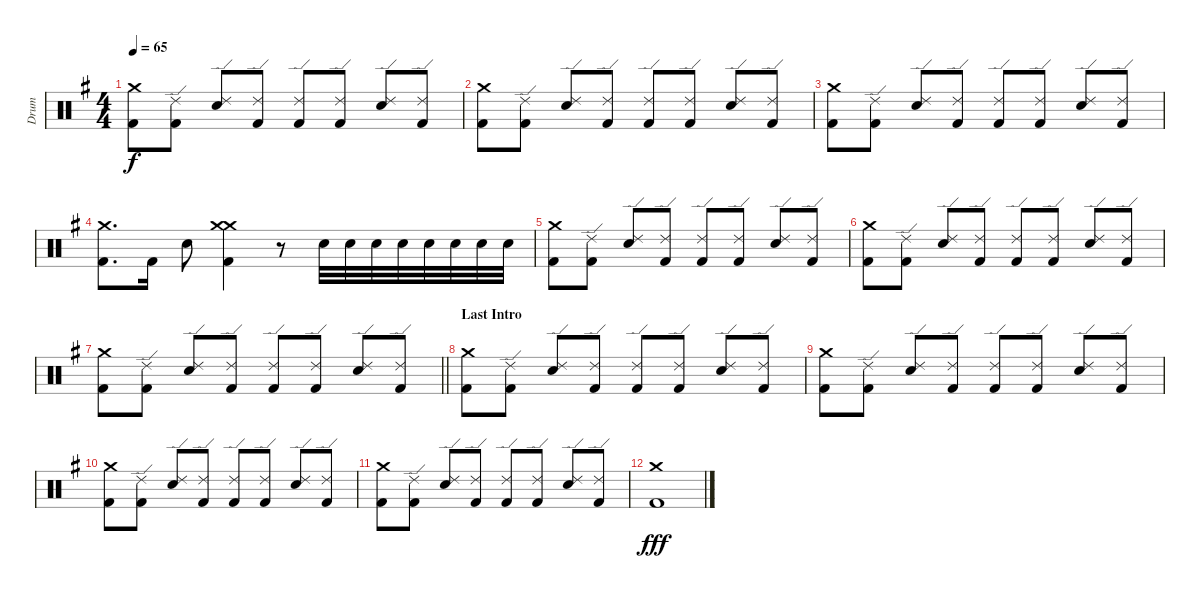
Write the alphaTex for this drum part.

\track ("Drum" "Drum") {instrument percussion}
\staff {score}
\articulation defaults
\ts (4 4)
\tempo 65
\clef neutral
\ks g
("Crash medium (hit)" "Kick (hit) 2").8{dy f} ("Ride (edge) 2" "Kick (hit) 2").8 ("Ride (edge) 2" "Electric Snare (hit)").8 ("Ride (edge) 2" "Kick (hit) 2").8 ("Ride (edge) 2" "Kick (hit) 2").8 ("Ride (edge) 2" "Kick (hit) 2").8 ("Ride (edge) 2" "Electric Snare (hit)").8 ("Ride (edge) 2" "Kick (hit) 2").8 |
("Crash medium (hit)" "Kick (hit) 2").8 ("Ride (edge) 2" "Kick (hit) 2").8 ("Ride (edge) 2" "Electric Snare (hit)").8 ("Ride (edge) 2" "Kick (hit) 2").8 ("Ride (edge) 2" "Kick (hit) 2").8 ("Ride (edge) 2" "Kick (hit) 2").8 ("Ride (edge) 2" "Electric Snare (hit)").8 ("Ride (edge) 2" "Kick (hit) 2").8 |
("Crash medium (hit)" "Kick (hit) 2").8 ("Ride (edge) 2" "Kick (hit) 2").8 ("Ride (edge) 2" "Electric Snare (hit)").8 ("Ride (edge) 2" "Kick (hit) 2").8 ("Ride (edge) 2" "Kick (hit) 2").8 ("Ride (edge) 2" "Kick (hit) 2").8 ("Ride (edge) 2" "Electric Snare (hit)").8 ("Ride (edge) 2" "Kick (hit) 2").8 |
("Crash medium (hit)" "Kick (hit) 2").8{d} "Kick (hit) 2".16 "Electric Snare (hit)".8 ("Crash medium (hit)" "Crash medium (hit)" "Kick (hit) 2").4 r.8 "Electric Snare (hit)".32 "Electric Snare (hit)".32 "Electric Snare (hit)".32 "Electric Snare (hit)".32 "Electric Snare (hit)".32 "Electric Snare (hit)".32 "Electric Snare (hit)".32 "Electric Snare (hit)".32 |
("Crash medium (hit)" "Kick (hit) 2").8 ("Ride (edge) 2" "Kick (hit) 2").8 ("Ride (edge) 2" "Electric Snare (hit)").8 ("Ride (edge) 2" "Kick (hit) 2").8 ("Ride (edge) 2" "Kick (hit) 2").8 ("Ride (edge) 2" "Kick (hit) 2").8 ("Ride (edge) 2" "Electric Snare (hit)").8 ("Ride (edge) 2" "Kick (hit) 2").8 |
("Crash medium (hit)" "Kick (hit) 2").8 ("Ride (edge) 2" "Kick (hit) 2").8 ("Ride (edge) 2" "Electric Snare (hit)").8 ("Ride (edge) 2" "Kick (hit) 2").8 ("Ride (edge) 2" "Kick (hit) 2").8 ("Ride (edge) 2" "Kick (hit) 2").8 ("Ride (edge) 2" "Electric Snare (hit)").8 ("Ride (edge) 2" "Kick (hit) 2").8 |
\barLineRight lightlight
("Crash medium (hit)" "Kick (hit) 2").8 ("Ride (edge) 2" "Kick (hit) 2").8 ("Ride (edge) 2" "Electric Snare (hit)").8 ("Ride (edge) 2" "Kick (hit) 2").8 ("Ride (edge) 2" "Kick (hit) 2").8 ("Ride (edge) 2" "Kick (hit) 2").8 ("Ride (edge) 2" "Electric Snare (hit)").8 ("Ride (edge) 2" "Kick (hit) 2").8 |
\section ("" "Last Intro")
("Crash medium (hit)" "Kick (hit) 2").8 ("Ride (edge) 2" "Kick (hit) 2").8 ("Ride (edge) 2" "Electric Snare (hit)").8 ("Ride (edge) 2" "Kick (hit) 2").8 ("Ride (edge) 2" "Kick (hit) 2").8 ("Ride (edge) 2" "Kick (hit) 2").8 ("Ride (edge) 2" "Electric Snare (hit)").8 ("Ride (edge) 2" "Kick (hit) 2").8 |
("Crash medium (hit)" "Kick (hit) 2").8 ("Ride (edge) 2" "Kick (hit) 2").8 ("Ride (edge) 2" "Electric Snare (hit)").8 ("Ride (edge) 2" "Kick (hit) 2").8 ("Ride (edge) 2" "Kick (hit) 2").8 ("Ride (edge) 2" "Kick (hit) 2").8 ("Ride (edge) 2" "Electric Snare (hit)").8 ("Ride (edge) 2" "Kick (hit) 2").8 |
("Crash medium (hit)" "Kick (hit) 2").8 ("Ride (edge) 2" "Kick (hit) 2").8 ("Ride (edge) 2" "Electric Snare (hit)").8 ("Ride (edge) 2" "Kick (hit) 2").8 ("Ride (edge) 2" "Kick (hit) 2").8 ("Ride (edge) 2" "Kick (hit) 2").8 ("Ride (edge) 2" "Electric Snare (hit)").8 ("Ride (edge) 2" "Kick (hit) 2").8 |
("Crash medium (hit)" "Kick (hit) 2").8 ("Ride (edge) 2" "Kick (hit) 2").8 ("Ride (edge) 2" "Electric Snare (hit)").8 ("Ride (edge) 2" "Kick (hit) 2").8 ("Ride (edge) 2" "Kick (hit) 2").8 ("Ride (edge) 2" "Kick (hit) 2").8 ("Ride (edge) 2" "Electric Snare (hit)").8 ("Ride (edge) 2" "Kick (hit) 2").8 |
("Crash medium (hit)" "Kick (hit) 2").1{dy fff}
